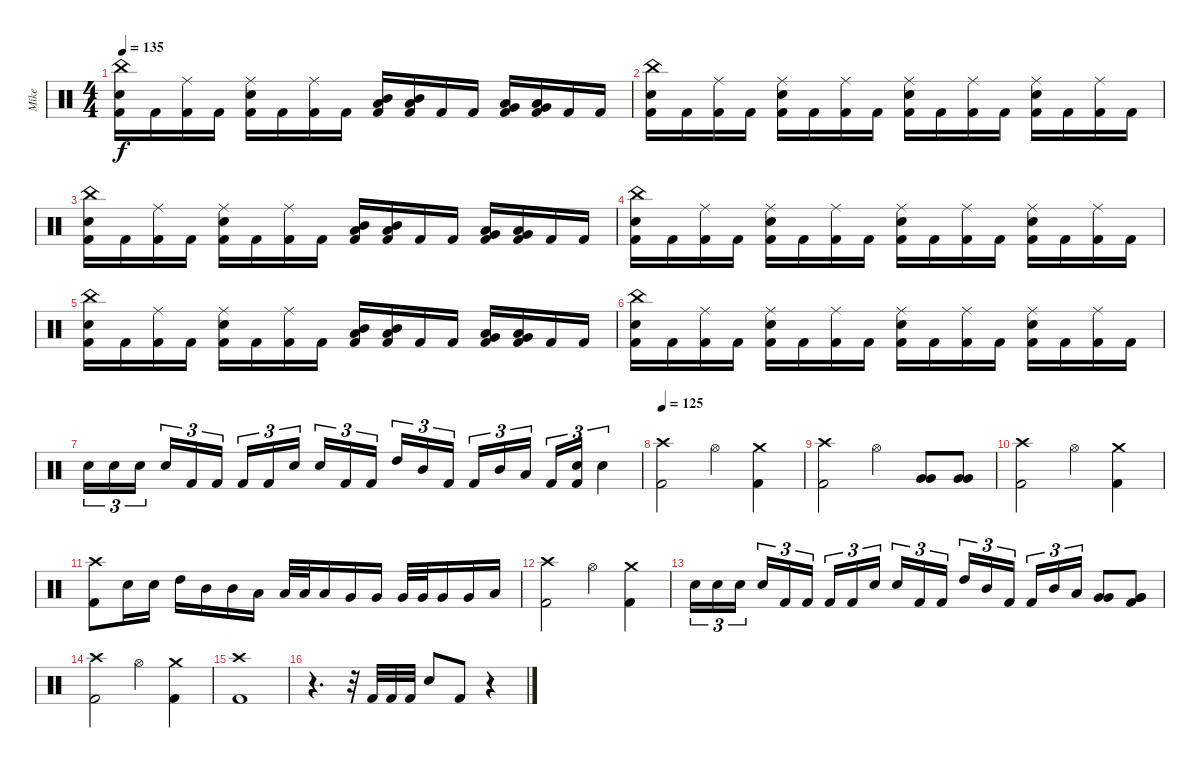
\track ("Mike" "Mike") {instrument percussion}
\staff {score}
\articulation defaults
\ts (4 4)
\tempo 135
\clef neutral
\ks c
("Kick (hit) 2" "Electric Snare (hit)" "China (hit)").16{dy f} "Kick (hit) 2".16 ("Kick (hit) 2" "Ride (middle)").16 "Kick (hit) 2".16 ("Kick (hit) 2" "Electric Snare (hit)" "Ride (middle)").16 "Kick (hit) 2".16 ("Kick (hit) 2" "Ride (middle)").16 "Kick (hit) 2".16 ("Kick (hit) 2" "Mid Tom (hit)" "Low Tom (hit)").16 ("Kick (hit) 2" "Mid Tom (hit)" "Low Tom (hit)").16 "Kick (hit) 2".16 "Kick (hit) 2".16 ("Kick (hit) 2" "Low Tom (hit)" "Very Low Tom (hit)").16 ("Kick (hit) 2" "Low Tom (hit)" "Very Low Tom (hit)").16 "Kick (hit) 2".16 "Kick (hit) 2".16 |
("Kick (hit) 2" "Electric Snare (hit)" "China (hit)").16 "Kick (hit) 2".16 ("Kick (hit) 2" "Ride (middle)").16 "Kick (hit) 2".16 ("Kick (hit) 2" "Electric Snare (hit)" "Ride (middle)").16 "Kick (hit) 2".16 ("Kick (hit) 2" "Ride (middle)").16 "Kick (hit) 2".16 ("Kick (hit) 2" "Electric Snare (hit)" "Ride (middle)").16 "Kick (hit) 2".16 ("Kick (hit) 2" "Ride (middle)").16 "Kick (hit) 2".16 ("Kick (hit) 2" "Electric Snare (hit)" "Ride (middle)").16 "Kick (hit) 2".16 ("Kick (hit) 2" "Ride (middle)").16 "Kick (hit) 2".16 |
("Kick (hit) 2" "Electric Snare (hit)" "China (hit)").16 "Kick (hit) 2".16 ("Kick (hit) 2" "Ride (middle)").16 "Kick (hit) 2".16 ("Kick (hit) 2" "Electric Snare (hit)" "Ride (middle)").16 "Kick (hit) 2".16 ("Kick (hit) 2" "Ride (middle)").16 "Kick (hit) 2".16 ("Kick (hit) 2" "Mid Tom (hit)" "Low Tom (hit)").16 ("Kick (hit) 2" "Mid Tom (hit)" "Low Tom (hit)").16 "Kick (hit) 2".16 "Kick (hit) 2".16 ("Kick (hit) 2" "Low Tom (hit)" "Very Low Tom (hit)").16 ("Kick (hit) 2" "Low Tom (hit)" "Very Low Tom (hit)").16 "Kick (hit) 2".16 "Kick (hit) 2".16 |
("Kick (hit) 2" "Electric Snare (hit)" "China (hit)").16 "Kick (hit) 2".16 ("Kick (hit) 2" "Ride (middle)").16 "Kick (hit) 2".16 ("Kick (hit) 2" "Electric Snare (hit)" "Ride (middle)").16 "Kick (hit) 2".16 ("Kick (hit) 2" "Ride (middle)").16 "Kick (hit) 2".16 ("Kick (hit) 2" "Electric Snare (hit)" "Ride (middle)").16 "Kick (hit) 2".16 ("Kick (hit) 2" "Ride (middle)").16 "Kick (hit) 2".16 ("Kick (hit) 2" "Electric Snare (hit)" "Ride (middle)").16 "Kick (hit) 2".16 ("Kick (hit) 2" "Ride (middle)").16 "Kick (hit) 2".16 |
("Kick (hit) 2" "Electric Snare (hit)" "China (hit)").16 "Kick (hit) 2".16 ("Kick (hit) 2" "Ride (middle)").16 "Kick (hit) 2".16 ("Kick (hit) 2" "Electric Snare (hit)" "Ride (middle)").16 "Kick (hit) 2".16 ("Kick (hit) 2" "Ride (middle)").16 "Kick (hit) 2".16 ("Kick (hit) 2" "Mid Tom (hit)" "Low Tom (hit)").16 ("Kick (hit) 2" "Mid Tom (hit)" "Low Tom (hit)").16 "Kick (hit) 2".16 "Kick (hit) 2".16 ("Kick (hit) 2" "Low Tom (hit)" "Very Low Tom (hit)").16 ("Kick (hit) 2" "Low Tom (hit)" "Very Low Tom (hit)").16 "Kick (hit) 2".16 "Kick (hit) 2".16 |
("Kick (hit) 2" "Electric Snare (hit)" "China (hit)").16 "Kick (hit) 2".16 ("Kick (hit) 2" "Ride (middle)").16 "Kick (hit) 2".16 ("Kick (hit) 2" "Electric Snare (hit)" "Ride (middle)").16 "Kick (hit) 2".16 ("Kick (hit) 2" "Ride (middle)").16 "Kick (hit) 2".16 ("Kick (hit) 2" "Electric Snare (hit)" "Ride (middle)").16 "Kick (hit) 2".16 ("Kick (hit) 2" "Ride (middle)").16 "Kick (hit) 2".16 ("Kick (hit) 2" "Electric Snare (hit)" "Ride (middle)").16 "Kick (hit) 2".16 ("Kick (hit) 2" "Ride (middle)").16 "Kick (hit) 2".16 |
"Electric Snare (hit)".16{tu (3 2)} "Electric Snare (hit)".16{tu (3 2)} "Electric Snare (hit)".16{tu (3 2) beam splitsecondary} "Electric Snare (hit)".16{tu (3 2)} "Kick (hit) 2".16{tu (3 2)} "Kick (hit) 2".16{tu (3 2)} "Kick (hit) 2".16{tu (3 2)} "Kick (hit) 2".16{tu (3 2)} "Electric Snare (hit)".16{tu (3 2) beam splitsecondary} "Electric Snare (hit)".16{tu (3 2)} "Kick (hit) 2".16{tu (3 2)} "Kick (hit) 2".16{tu (3 2)} "High Tom (hit)".16{tu (3 2)} "Mid Tom (hit)".16{tu (3 2)} "Kick (hit) 2".16{tu (3 2) beam splitsecondary} "Kick (hit) 2".16{tu (3 2)} "Mid Tom (hit)".16{tu (3 2)} "Low Tom (hit)".16{tu (3 2)} "Kick (hit) 2".16{tu (3 2)} ("Kick (hit) 2" "Electric Snare (hit)").16{tu (3 2)} "Electric Snare (hit)".4{tu (3 2)} |
\tempo 125
("Kick (hit) 2" "Crash high (hit)").2 "Hi-Hat (open)".4 ("Kick (hit) 2" "Crash medium (hit)").4 |
("Kick (hit) 2" "Crash high (hit)").2 "Hi-Hat (open)".4 ("Very Low Tom (hit)" "Very Low Tom (hit)").8 ("Very Low Tom (hit)" "Very Low Tom (hit)").8 |
("Kick (hit) 2" "Crash high (hit)").2 "Hi-Hat (open)".4 ("Kick (hit) 2" "Crash medium (hit)").4 |
("Kick (hit) 2" "Crash high (hit)").8 "Electric Snare (hit)".16 "Electric Snare (hit)".16 "High Tom (hit)".16 "Mid Tom (hit)".16 "Mid Tom (hit)".16 "Low Tom (hit)".16 "Low Tom (hit)".32 "Low Tom (hit)".32 "Low Tom (hit)".16 "Very Low Tom (hit)".16 "Very Low Tom (hit)".16 "Very Low Tom (hit)".32 "Very Low Tom (hit)".32 "Very Low Tom (hit)".16 "Very Low Tom (hit)".16 "Low Floor Tom (hit)".16 |
("Kick (hit) 2" "Crash high (hit)").2 "Hi-Hat (open)".4 ("Kick (hit) 2" "Crash medium (hit)").4 |
"Electric Snare (hit)".16{tu (3 2)} "Electric Snare (hit)".16{tu (3 2)} "Electric Snare (hit)".16{tu (3 2) beam splitsecondary} "Electric Snare (hit)".16{tu (3 2)} "Kick (hit) 2".16{tu (3 2)} "Kick (hit) 2".16{tu (3 2)} "Kick (hit) 2".16{tu (3 2)} "Kick (hit) 2".16{tu (3 2)} "Electric Snare (hit)".16{tu (3 2) beam splitsecondary} "Electric Snare (hit)".16{tu (3 2)} "Kick (hit) 2".16{tu (3 2)} "Kick (hit) 2".16{tu (3 2)} "High Tom (hit)".16{tu (3 2)} "Mid Tom (hit)".16{tu (3 2)} "Kick (hit) 2".16{tu (3 2) beam splitsecondary} "Kick (hit) 2".16{tu (3 2)} "Mid Tom (hit)".16{tu (3 2)} "Low Tom (hit)".16{tu (3 2)} ("Very Low Tom (hit)" "Very Low Tom (hit)").8 ("Kick (hit) 2" "Very Low Tom (hit)" "Very Low Tom (hit)").8 |
("Kick (hit) 2" "Crash high (hit)").2 "Hi-Hat (open)".4 ("Kick (hit) 2" "Crash medium (hit)").4 |
("Kick (hit) 2" "Crash high (hit)").1 |
r.4{d} r.32 "Kick (hit) 2".32 "Kick (hit) 2".32 "Kick (hit) 2".32 "Electric Snare (hit)".8 "Kick (hit) 2".8 r.4
